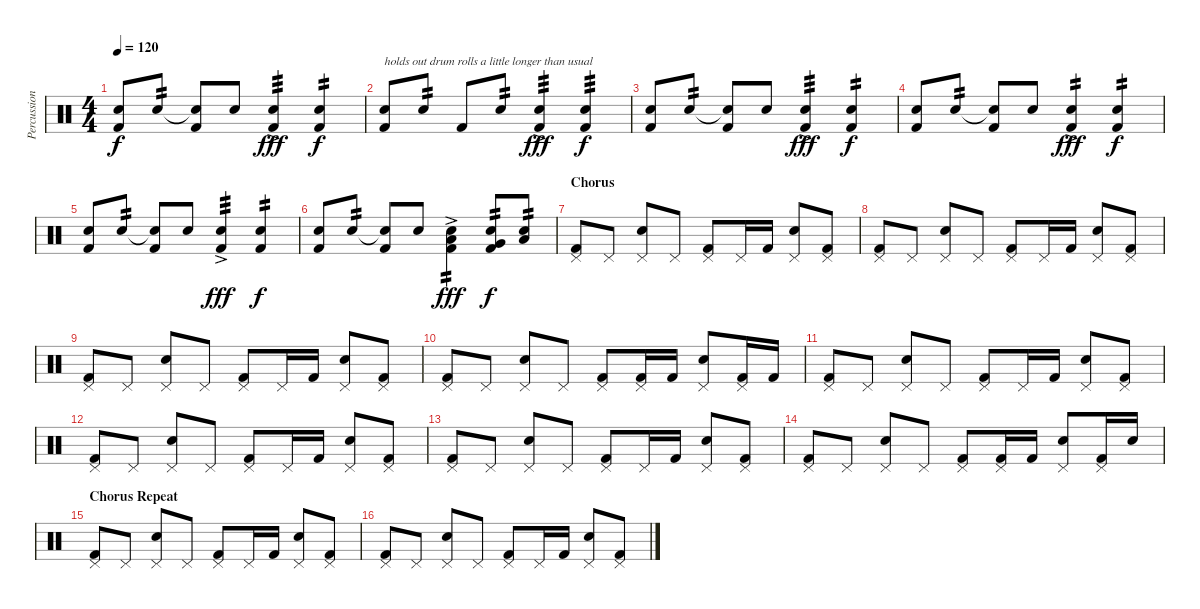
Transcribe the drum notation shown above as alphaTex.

\track ("Percussion" "Percussion") {instrument percussion}
\staff {score}
\articulation defaults
\ts (4 4)
\tempo 120
\clef neutral
\ks c
("Electric Snare (hit)" "Kick (hit) 2").8{dy f} "Electric Snare (hit)".8{tp 2} ("Snare (hit)"{t} "Kick (hit) 2").8 "Electric Snare (hit)".8{volume 6} ("Electric Snare (hit)" "Kick (hit) 2"{ac}).4{tp 3 dy fff volume 11} ("Electric Snare (hit)" "Kick (hit) 2").4{tp 2 dy f} |
("Electric Snare (hit)" "Kick (hit) 2").8{txt "holds out drum rolls a little longer than usual"} "Electric Snare (hit)".8{tp 2} "Kick (hit) 2".8 "Electric Snare (hit)".8{tp 2 volume 6} ("Electric Snare (hit)" "Kick (hit) 2"{ac}).4{tp 3 dy fff volume 11} ("Electric Snare (hit)" "Kick (hit) 2").4{tp 3 dy f} |
("Electric Snare (hit)" "Kick (hit) 2").8 "Electric Snare (hit)".8{tp 2} ("Snare (hit)"{t} "Kick (hit) 2").8 "Electric Snare (hit)".8{volume 6} ("Electric Snare (hit)" "Kick (hit) 2"{ac}).4{tp 3 dy fff volume 11} ("Electric Snare (hit)" "Kick (hit) 2").4{tp 2 dy f} |
("Electric Snare (hit)" "Kick (hit) 2").8 "Electric Snare (hit)".8{tp 2} ("Snare (hit)"{t} "Kick (hit) 2").8 "Electric Snare (hit)".8{volume 6} ("Electric Snare (hit)" "Kick (hit) 2"{ac}).4{tp 2 dy fff volume 11} ("Electric Snare (hit)" "Kick (hit) 2").4{tp 2 dy f} |
("Electric Snare (hit)" "Kick (hit) 2").8 "Electric Snare (hit)".8{tp 2} ("Snare (hit)"{t} "Kick (hit) 2").8 "Electric Snare (hit)".8{volume 6} ("Electric Snare (hit)" "Kick (hit) 2"{ac}).4{tp 3 dy fff volume 11} ("Electric Snare (hit)" "Kick (hit) 2").4{tp 2 dy f} |
("Electric Snare (hit)" "Kick (hit) 2").8 "Electric Snare (hit)".8{tp 2} ("Snare (hit)"{t} "Kick (hit) 2").8 "Electric Snare (hit)".8{volume 6} ("Electric Snare (hit)" "Low Tom (hit)" "Kick (hit) 2"{ac}).4{tp 2 dy fff volume 11} ("Electric Snare (hit)" "Very Low Tom (hit)" "Kick (hit) 2").8{tp 2 dy f} ("Electric Snare (hit)" "Low Floor Tom (hit)").8{tp 2} |
\section ("" "Chorus")
("Kick (hit) 2" "Pedal Hi-Hat (hit)").8 "Pedal Hi-Hat (hit)".8 ("Electric Snare (hit)" "Pedal Hi-Hat (hit)").8 "Pedal Hi-Hat (hit)".8 ("Kick (hit) 2" "Pedal Hi-Hat (hit)").8 "Pedal Hi-Hat (hit)".16 "Kick (hit) 2".16 ("Electric Snare (hit)" "Pedal Hi-Hat (hit)").8 ("Kick (hit) 2" "Pedal Hi-Hat (hit)").8 |
("Kick (hit) 2" "Pedal Hi-Hat (hit)").8 "Pedal Hi-Hat (hit)".8 ("Electric Snare (hit)" "Pedal Hi-Hat (hit)").8 "Pedal Hi-Hat (hit)".8 ("Kick (hit) 2" "Pedal Hi-Hat (hit)").8 "Pedal Hi-Hat (hit)".16 "Kick (hit) 2".16 ("Electric Snare (hit)" "Pedal Hi-Hat (hit)").8 ("Kick (hit) 2" "Pedal Hi-Hat (hit)").8 |
("Kick (hit) 2" "Pedal Hi-Hat (hit)").8 "Pedal Hi-Hat (hit)".8 ("Electric Snare (hit)" "Pedal Hi-Hat (hit)").8 "Pedal Hi-Hat (hit)".8 ("Kick (hit) 2" "Pedal Hi-Hat (hit)").8 "Pedal Hi-Hat (hit)".16 "Kick (hit) 2".16 ("Electric Snare (hit)" "Pedal Hi-Hat (hit)").8 ("Kick (hit) 2" "Pedal Hi-Hat (hit)").8 |
("Kick (hit) 2" "Pedal Hi-Hat (hit)").8 "Pedal Hi-Hat (hit)".8 ("Electric Snare (hit)" "Pedal Hi-Hat (hit)").8 "Pedal Hi-Hat (hit)".8 ("Kick (hit) 2" "Pedal Hi-Hat (hit)").8 ("Kick (hit) 2" "Pedal Hi-Hat (hit)").16 "Kick (hit) 2".16 ("Electric Snare (hit)" "Pedal Hi-Hat (hit)").8 ("Kick (hit) 2" "Pedal Hi-Hat (hit)").16 "Kick (hit) 2".16 |
("Kick (hit) 2" "Pedal Hi-Hat (hit)").8 "Pedal Hi-Hat (hit)".8 ("Electric Snare (hit)" "Pedal Hi-Hat (hit)").8 "Pedal Hi-Hat (hit)".8 ("Kick (hit) 2" "Pedal Hi-Hat (hit)").8 "Pedal Hi-Hat (hit)".16 "Kick (hit) 2".16 ("Electric Snare (hit)" "Pedal Hi-Hat (hit)").8 ("Kick (hit) 2" "Pedal Hi-Hat (hit)").8 |
("Kick (hit) 2" "Pedal Hi-Hat (hit)").8 "Pedal Hi-Hat (hit)".8 ("Electric Snare (hit)" "Pedal Hi-Hat (hit)").8 "Pedal Hi-Hat (hit)".8 ("Kick (hit) 2" "Pedal Hi-Hat (hit)").8 "Pedal Hi-Hat (hit)".16 "Kick (hit) 2".16 ("Electric Snare (hit)" "Pedal Hi-Hat (hit)").8 ("Kick (hit) 2" "Pedal Hi-Hat (hit)").8 |
("Kick (hit) 2" "Pedal Hi-Hat (hit)").8 "Pedal Hi-Hat (hit)".8 ("Electric Snare (hit)" "Pedal Hi-Hat (hit)").8 "Pedal Hi-Hat (hit)".8 ("Kick (hit) 2" "Pedal Hi-Hat (hit)").8 "Pedal Hi-Hat (hit)".16 "Kick (hit) 2".16 ("Electric Snare (hit)" "Pedal Hi-Hat (hit)").8 ("Kick (hit) 2" "Pedal Hi-Hat (hit)").8 |
("Kick (hit) 2" "Pedal Hi-Hat (hit)").8 "Pedal Hi-Hat (hit)".8 ("Electric Snare (hit)" "Pedal Hi-Hat (hit)").8 "Pedal Hi-Hat (hit)".8 ("Kick (hit) 2" "Pedal Hi-Hat (hit)").8 ("Kick (hit) 2" "Pedal Hi-Hat (hit)").16 "Kick (hit) 2".16 ("Electric Snare (hit)" "Pedal Hi-Hat (hit)").8 ("Kick (hit) 2" "Pedal Hi-Hat (hit)").16 "Electric Snare (hit)".16 |
\section ("" "Chorus Repeat")
("Kick (hit) 2" "Pedal Hi-Hat (hit)").8 "Pedal Hi-Hat (hit)".8 ("Electric Snare (hit)" "Pedal Hi-Hat (hit)").8 "Pedal Hi-Hat (hit)".8 ("Kick (hit) 2" "Pedal Hi-Hat (hit)").8 "Pedal Hi-Hat (hit)".16 "Kick (hit) 2".16 ("Electric Snare (hit)" "Pedal Hi-Hat (hit)").8 ("Kick (hit) 2" "Pedal Hi-Hat (hit)").8 |
("Kick (hit) 2" "Pedal Hi-Hat (hit)").8 "Pedal Hi-Hat (hit)".8 ("Electric Snare (hit)" "Pedal Hi-Hat (hit)").8 "Pedal Hi-Hat (hit)".8 ("Kick (hit) 2" "Pedal Hi-Hat (hit)").8 "Pedal Hi-Hat (hit)".16 "Kick (hit) 2".16 ("Electric Snare (hit)" "Pedal Hi-Hat (hit)").8 ("Kick (hit) 2" "Pedal Hi-Hat (hit)").8
